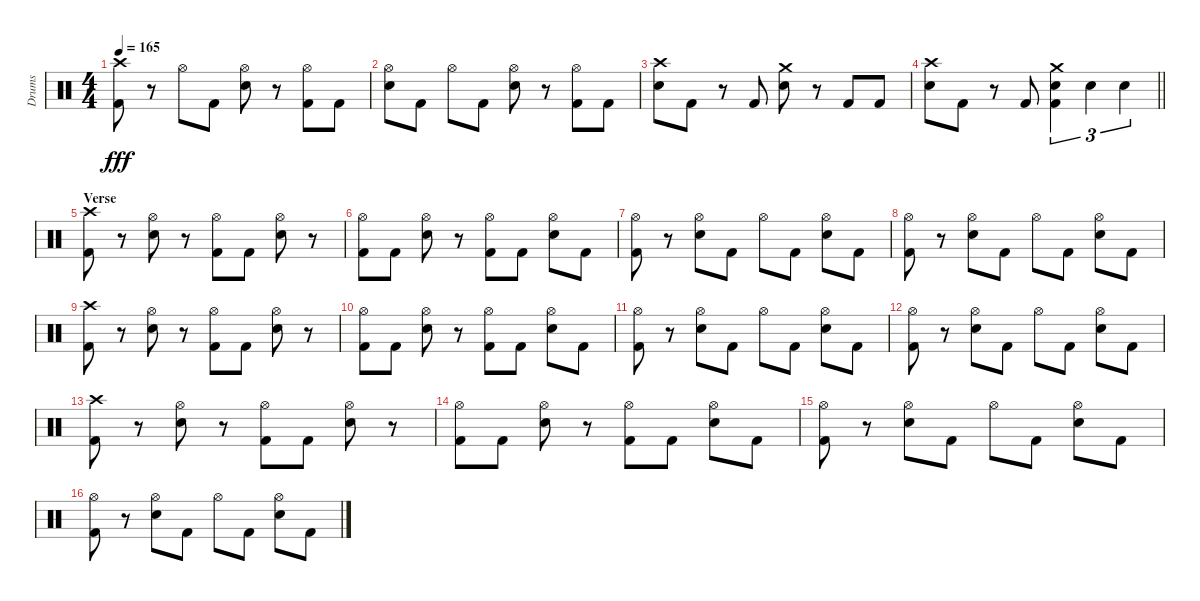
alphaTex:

\track ("Drums" "Drums") {instrument percussion}
\staff {score}
\articulation defaults
\ts (4 4)
\tempo 165
\clef neutral
\ks c
("Crash high (hit)" "Kick (hit) 2").8{dy fff} r.8 "Hi-Hat (open)".8 "Kick (hit) 2".8 ("Hi-Hat (open)" "Electric Snare (hit)").8 r.8 ("Hi-Hat (open)" "Kick (hit) 2").8 "Kick (hit) 2".8 |
("Hi-Hat (open)" "Electric Snare (hit)").8 "Kick (hit) 2".8 "Hi-Hat (open)".8 "Kick (hit) 2".8 ("Hi-Hat (open)" "Electric Snare (hit)").8 r.8 ("Hi-Hat (open)" "Kick (hit) 2").8 "Kick (hit) 2".8 |
("Crash high (hit)" "Electric Snare (hit)").8 "Kick (hit) 2".8 r.8 "Kick (hit) 2".8 ("Crash medium (hit)" "Electric Snare (hit)").8 r.8 "Kick (hit) 2".8 "Kick (hit) 2".8 |
\barLineRight lightlight
("Crash high (hit)" "Electric Snare (hit)").8 "Kick (hit) 2".8 r.8 "Kick (hit) 2".8 ("Crash medium (hit)" "Electric Snare (hit)" "Kick (hit) 2").4{tu (3 2)} "Electric Snare (hit)".4{tu (3 2)} "Electric Snare (hit)".4{tu (3 2)} |
\section ("" "Verse")
("Crash high (hit)" "Kick (hit) 2").8 r.8 ("Hi-Hat (open)" "Electric Snare (hit)").8 r.8 ("Hi-Hat (open)" "Kick (hit) 2").8 "Kick (hit) 2".8 ("Hi-Hat (open)" "Electric Snare (hit)").8 r.8 |
("Hi-Hat (open)" "Kick (hit) 2").8 "Kick (hit) 2".8 ("Hi-Hat (open)" "Electric Snare (hit)").8 r.8 ("Hi-Hat (open)" "Kick (hit) 2").8 "Kick (hit) 2".8 ("Hi-Hat (open)" "Electric Snare (hit)").8 "Kick (hit) 2".8 |
("Hi-Hat (open)" "Kick (hit) 2").8 r.8 ("Hi-Hat (open)" "Electric Snare (hit)").8 "Kick (hit) 2".8 "Hi-Hat (open)".8 "Kick (hit) 2".8 ("Hi-Hat (open)" "Electric Snare (hit)").8 "Kick (hit) 2".8 |
("Hi-Hat (open)" "Kick (hit) 2").8 r.8 ("Hi-Hat (open)" "Electric Snare (hit)").8 "Kick (hit) 2".8 "Hi-Hat (open)".8 "Kick (hit) 2".8 ("Hi-Hat (open)" "Electric Snare (hit)").8 "Kick (hit) 2".8 |
("Crash high (hit)" "Kick (hit) 2").8 r.8 ("Hi-Hat (open)" "Electric Snare (hit)").8 r.8 ("Hi-Hat (open)" "Kick (hit) 2").8 "Kick (hit) 2".8 ("Hi-Hat (open)" "Electric Snare (hit)").8 r.8 |
("Hi-Hat (open)" "Kick (hit) 2").8 "Kick (hit) 2".8 ("Hi-Hat (open)" "Electric Snare (hit)").8 r.8 ("Hi-Hat (open)" "Kick (hit) 2").8 "Kick (hit) 2".8 ("Hi-Hat (open)" "Electric Snare (hit)").8 "Kick (hit) 2".8 |
("Hi-Hat (open)" "Kick (hit) 2").8 r.8 ("Hi-Hat (open)" "Electric Snare (hit)").8 "Kick (hit) 2".8 "Hi-Hat (open)".8 "Kick (hit) 2".8 ("Hi-Hat (open)" "Electric Snare (hit)").8 "Kick (hit) 2".8 |
("Hi-Hat (open)" "Kick (hit) 2").8 r.8 ("Hi-Hat (open)" "Electric Snare (hit)").8 "Kick (hit) 2".8 "Hi-Hat (open)".8 "Kick (hit) 2".8 ("Hi-Hat (open)" "Electric Snare (hit)").8 "Kick (hit) 2".8 |
("Crash high (hit)" "Kick (hit) 2").8 r.8 ("Hi-Hat (open)" "Electric Snare (hit)").8 r.8 ("Hi-Hat (open)" "Kick (hit) 2").8 "Kick (hit) 2".8 ("Hi-Hat (open)" "Electric Snare (hit)").8 r.8 |
("Hi-Hat (open)" "Kick (hit) 2").8 "Kick (hit) 2".8 ("Hi-Hat (open)" "Electric Snare (hit)").8 r.8 ("Hi-Hat (open)" "Kick (hit) 2").8 "Kick (hit) 2".8 ("Hi-Hat (open)" "Electric Snare (hit)").8 "Kick (hit) 2".8 |
("Hi-Hat (open)" "Kick (hit) 2").8 r.8 ("Hi-Hat (open)" "Electric Snare (hit)").8 "Kick (hit) 2".8 "Hi-Hat (open)".8 "Kick (hit) 2".8 ("Hi-Hat (open)" "Electric Snare (hit)").8 "Kick (hit) 2".8 |
("Hi-Hat (open)" "Kick (hit) 2").8 r.8 ("Hi-Hat (open)" "Electric Snare (hit)").8 "Kick (hit) 2".8 "Hi-Hat (open)".8 "Kick (hit) 2".8 ("Hi-Hat (open)" "Electric Snare (hit)").8 "Kick (hit) 2".8
